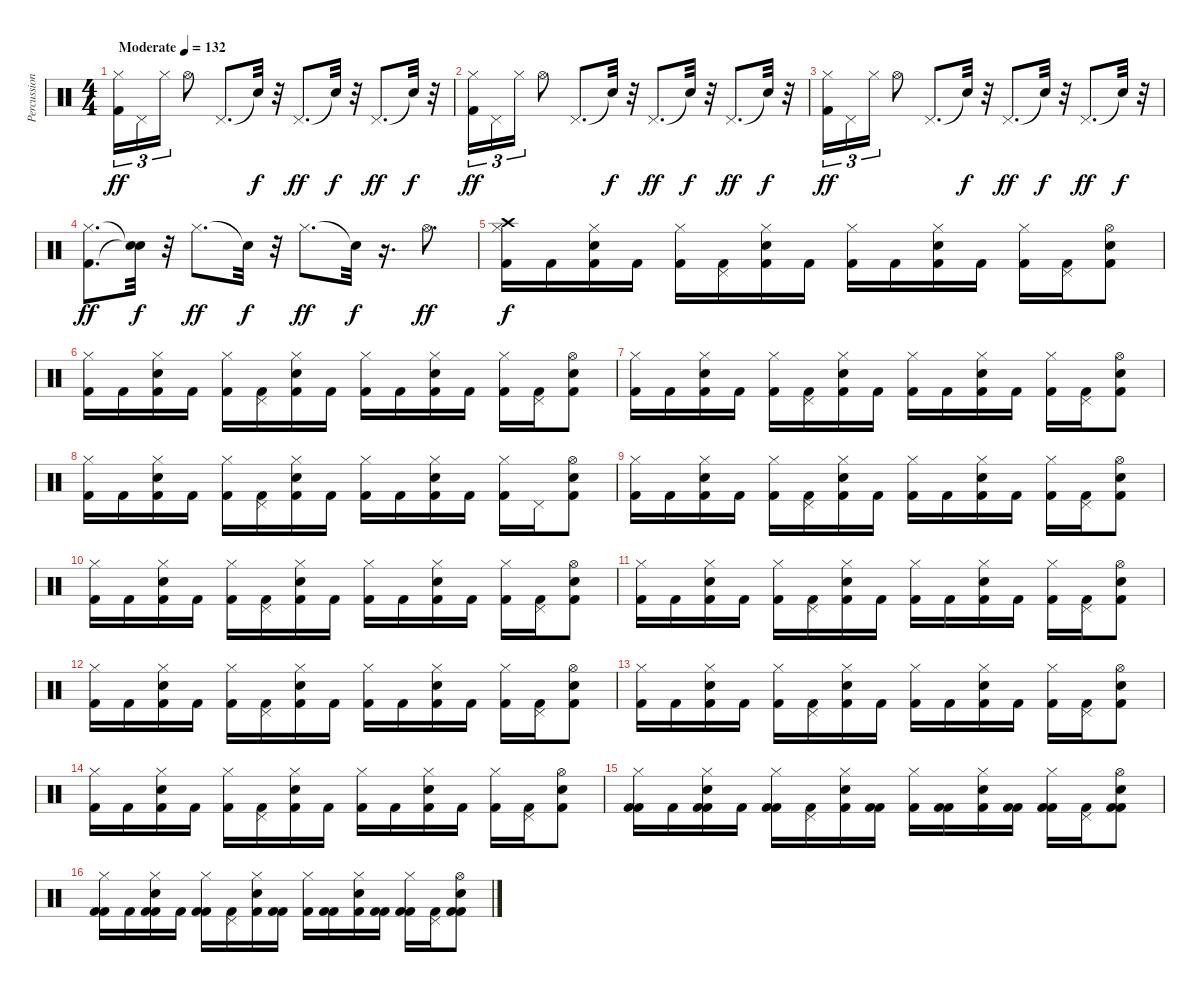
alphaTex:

\track ("Percussion" "Percussion") {instrument percussion}
\staff {score}
\articulation defaults
\ts (4 4)
\tempo (132 "Moderate")
\clef neutral
\ks c
("Kick (hit) 2" "Hi-Hat (closed)").16{tu (3 2) dy ff} "Pedal Hi-Hat (hit)".16{tu (3 2)} "Hi-Hat (closed)".16{tu (3 2)} "Hi-Hat (open)".8 "Pedal Hi-Hat (hit)".8{d} "Snare (hit)"{t}.32{dy f} r.32 "Pedal Hi-Hat (hit)".8{d dy ff} "Snare (hit)"{t}.32{dy f} r.32 "Pedal Hi-Hat (hit)".8{d dy ff} "Snare (hit)"{t}.32{dy f} r.32 |
("Kick (hit) 2" "Hi-Hat (closed)").16{tu (3 2) dy ff} "Pedal Hi-Hat (hit)".16{tu (3 2)} "Hi-Hat (closed)".16{tu (3 2)} "Hi-Hat (open)".8 "Pedal Hi-Hat (hit)".8{d} "Snare (hit)"{t}.32{dy f} r.32 "Pedal Hi-Hat (hit)".8{d dy ff} "Snare (hit)"{t}.32{dy f} r.32 "Pedal Hi-Hat (hit)".8{d dy ff} "Snare (hit)"{t}.32{dy f} r.32 |
("Kick (hit) 2" "Hi-Hat (closed)").16{tu (3 2) dy ff} "Pedal Hi-Hat (hit)".16{tu (3 2)} "Hi-Hat (closed)".16{tu (3 2)} "Hi-Hat (open)".8 "Pedal Hi-Hat (hit)".8{d} "Snare (hit)"{t}.32{dy f} r.32 "Pedal Hi-Hat (hit)".8{d dy ff} "Snare (hit)"{t}.32{dy f} r.32 "Pedal Hi-Hat (hit)".8{d dy ff} "Snare (hit)"{t}.32{dy f} r.32 |
("Kick (hit) 2" "Hi-Hat (closed)").8{d dy ff} ("Snare (hit)"{t} "Snare (hit)"{t}).32{dy f} r.32 "Hi-Hat (closed)".8{d dy ff} "Snare (hit)"{t}.32{dy f} r.32 "Hi-Hat (closed)".8{d dy ff} "Snare (hit)"{t}.32{dy f} r.16{d} "Hi-Hat (open)".8{d dy ff} |
("Kick (hit) 2" "Hi-Hat (closed)" "Crash high (hit)").16{dy f} "Kick (hit) 2".16 ("Kick (hit) 2" "Snare (hit) 2" "Hi-Hat (closed)").16 "Kick (hit) 2".16 ("Kick (hit) 2" "Hi-Hat (closed)").16 ("Pedal Hi-Hat (hit)" "Kick (hit) 2").16 ("Snare (hit) 2" "Hi-Hat (closed)" "Kick (hit) 2").16 "Kick (hit) 2".16 ("Hi-Hat (closed)" "Kick (hit) 2").16 "Kick (hit) 2".16 ("Snare (hit) 2" "Hi-Hat (closed)" "Kick (hit) 2").16 "Kick (hit) 2".16 ("Kick (hit) 2" "Hi-Hat (closed)").16 ("Pedal Hi-Hat (hit)" "Kick (hit) 2").16 ("Kick (hit) 2" "Snare (hit) 2" "Hi-Hat (open)").8 |
("Kick (hit) 2" "Hi-Hat (closed)").16 "Kick (hit) 2".16 ("Kick (hit) 2" "Snare (hit) 2" "Hi-Hat (closed)").16 "Kick (hit) 2".16 ("Kick (hit) 2" "Hi-Hat (closed)").16 ("Pedal Hi-Hat (hit)" "Kick (hit) 2").16 ("Snare (hit) 2" "Hi-Hat (closed)" "Kick (hit) 2").16 "Kick (hit) 2".16 ("Hi-Hat (closed)" "Kick (hit) 2").16 "Kick (hit) 2".16 ("Snare (hit) 2" "Hi-Hat (closed)" "Kick (hit) 2").16 "Kick (hit) 2".16 ("Kick (hit) 2" "Hi-Hat (closed)").16 ("Pedal Hi-Hat (hit)" "Kick (hit) 2").16 ("Kick (hit) 2" "Snare (hit) 2" "Hi-Hat (open)").8 |
("Kick (hit) 2" "Hi-Hat (closed)").16 "Kick (hit) 2".16 ("Kick (hit) 2" "Snare (hit) 2" "Hi-Hat (closed)").16 "Kick (hit) 2".16 ("Kick (hit) 2" "Hi-Hat (closed)").16 ("Pedal Hi-Hat (hit)" "Kick (hit) 2").16 ("Snare (hit) 2" "Hi-Hat (closed)" "Kick (hit) 2").16 "Kick (hit) 2".16 ("Hi-Hat (closed)" "Kick (hit) 2").16 "Kick (hit) 2".16 ("Snare (hit) 2" "Hi-Hat (closed)" "Kick (hit) 2").16 "Kick (hit) 2".16 ("Kick (hit) 2" "Hi-Hat (closed)").16 ("Pedal Hi-Hat (hit)" "Kick (hit) 2").16 ("Kick (hit) 2" "Snare (hit) 2" "Hi-Hat (open)").8 |
("Kick (hit) 2" "Hi-Hat (closed)").16 "Kick (hit) 2".16 ("Kick (hit) 2" "Snare (hit) 2" "Hi-Hat (closed)").16 "Kick (hit) 2".16 ("Kick (hit) 2" "Hi-Hat (closed)").16 ("Pedal Hi-Hat (hit)" "Kick (hit) 2").16 ("Snare (hit) 2" "Hi-Hat (closed)" "Kick (hit) 2").16 "Kick (hit) 2".16 ("Hi-Hat (closed)" "Kick (hit) 2").16 "Kick (hit) 2".16 ("Snare (hit) 2" "Hi-Hat (closed)" "Kick (hit) 2").16 "Kick (hit) 2".16 ("Kick (hit) 2" "Hi-Hat (closed)").16 "Pedal Hi-Hat (hit)".16 ("Kick (hit) 2" "Snare (hit) 2" "Hi-Hat (open)").8 |
("Kick (hit) 2" "Hi-Hat (closed)").16 "Kick (hit) 2".16 ("Kick (hit) 2" "Snare (hit) 2" "Hi-Hat (closed)").16 "Kick (hit) 2".16 ("Kick (hit) 2" "Hi-Hat (closed)").16 ("Pedal Hi-Hat (hit)" "Kick (hit) 2").16 ("Snare (hit) 2" "Hi-Hat (closed)" "Kick (hit) 2").16 "Kick (hit) 2".16 ("Hi-Hat (closed)" "Kick (hit) 2").16 "Kick (hit) 2".16 ("Snare (hit) 2" "Hi-Hat (closed)" "Kick (hit) 2").16 "Kick (hit) 2".16 ("Kick (hit) 2" "Hi-Hat (closed)").16 ("Pedal Hi-Hat (hit)" "Kick (hit) 2").16 ("Kick (hit) 2" "Snare (hit) 2" "Hi-Hat (open)").8 |
("Kick (hit) 2" "Hi-Hat (closed)").16 "Kick (hit) 2".16 ("Kick (hit) 2" "Snare (hit) 2" "Hi-Hat (closed)").16 "Kick (hit) 2".16 ("Kick (hit) 2" "Hi-Hat (closed)").16 ("Pedal Hi-Hat (hit)" "Kick (hit) 2").16 ("Snare (hit) 2" "Hi-Hat (closed)" "Kick (hit) 2").16 "Kick (hit) 2".16 ("Hi-Hat (closed)" "Kick (hit) 2").16 "Kick (hit) 2".16 ("Snare (hit) 2" "Hi-Hat (closed)" "Kick (hit) 2").16 "Kick (hit) 2".16 ("Kick (hit) 2" "Hi-Hat (closed)").16 ("Pedal Hi-Hat (hit)" "Kick (hit) 2").16 ("Kick (hit) 2" "Snare (hit) 2" "Hi-Hat (open)").8 |
("Kick (hit) 2" "Hi-Hat (closed)").16 "Kick (hit) 2".16 ("Kick (hit) 2" "Snare (hit) 2" "Hi-Hat (closed)").16 "Kick (hit) 2".16 ("Kick (hit) 2" "Hi-Hat (closed)").16 ("Pedal Hi-Hat (hit)" "Kick (hit) 2").16 ("Snare (hit) 2" "Hi-Hat (closed)" "Kick (hit) 2").16 "Kick (hit) 2".16 ("Hi-Hat (closed)" "Kick (hit) 2").16 "Kick (hit) 2".16 ("Snare (hit) 2" "Hi-Hat (closed)" "Kick (hit) 2").16 "Kick (hit) 2".16 ("Kick (hit) 2" "Hi-Hat (closed)").16 ("Pedal Hi-Hat (hit)" "Kick (hit) 2").16 ("Kick (hit) 2" "Snare (hit) 2" "Hi-Hat (open)").8 |
("Kick (hit) 2" "Hi-Hat (closed)").16 "Kick (hit) 2".16 ("Kick (hit) 2" "Snare (hit) 2" "Hi-Hat (closed)").16 "Kick (hit) 2".16 ("Kick (hit) 2" "Hi-Hat (closed)").16 ("Pedal Hi-Hat (hit)" "Kick (hit) 2").16 ("Snare (hit) 2" "Hi-Hat (closed)" "Kick (hit) 2").16 "Kick (hit) 2".16 ("Hi-Hat (closed)" "Kick (hit) 2").16 "Kick (hit) 2".16 ("Snare (hit) 2" "Hi-Hat (closed)" "Kick (hit) 2").16 "Kick (hit) 2".16 ("Kick (hit) 2" "Hi-Hat (closed)").16 ("Pedal Hi-Hat (hit)" "Kick (hit) 2").16 ("Kick (hit) 2" "Snare (hit) 2" "Hi-Hat (open)").8 |
("Kick (hit) 2" "Hi-Hat (closed)").16 "Kick (hit) 2".16 ("Kick (hit) 2" "Snare (hit) 2" "Hi-Hat (closed)").16 "Kick (hit) 2".16 ("Kick (hit) 2" "Hi-Hat (closed)").16 ("Pedal Hi-Hat (hit)" "Kick (hit) 2").16 ("Snare (hit) 2" "Hi-Hat (closed)" "Kick (hit) 2").16 "Kick (hit) 2".16 ("Hi-Hat (closed)" "Kick (hit) 2").16 "Kick (hit) 2".16 ("Snare (hit) 2" "Hi-Hat (closed)" "Kick (hit) 2").16 "Kick (hit) 2".16 ("Kick (hit) 2" "Hi-Hat (closed)").16 ("Pedal Hi-Hat (hit)" "Kick (hit) 2").16 ("Kick (hit) 2" "Snare (hit) 2" "Hi-Hat (open)").8 |
("Kick (hit) 2" "Hi-Hat (closed)").16 "Kick (hit) 2".16 ("Kick (hit) 2" "Snare (hit) 2" "Hi-Hat (closed)").16 "Kick (hit) 2".16 ("Kick (hit) 2" "Hi-Hat (closed)").16 ("Pedal Hi-Hat (hit)" "Kick (hit) 2").16 ("Snare (hit) 2" "Hi-Hat (closed)" "Kick (hit) 2").16 "Kick (hit) 2".16 ("Hi-Hat (closed)" "Kick (hit) 2").16 "Kick (hit) 2".16 ("Snare (hit) 2" "Hi-Hat (closed)" "Kick (hit) 2").16 "Kick (hit) 2".16 ("Kick (hit) 2" "Hi-Hat (closed)").16 ("Pedal Hi-Hat (hit)" "Kick (hit) 2").16 ("Kick (hit) 2" "Snare (hit) 2" "Hi-Hat (open)").8 |
("Kick (hit) 2" "Hi-Hat (closed)" "Kick (hit) 2").16 "Kick (hit) 2".16 ("Kick (hit) 2" "Snare (hit) 2" "Hi-Hat (closed)" "Kick (hit) 2").16 "Kick (hit) 2".16 ("Kick (hit) 2" "Hi-Hat (closed)" "Kick (hit) 2").16 ("Pedal Hi-Hat (hit)" "Kick (hit) 2").16 ("Snare (hit) 2" "Hi-Hat (closed)" "Kick (hit) 2").16 ("Kick (hit) 2" "Kick (hit) 2").16 ("Hi-Hat (closed)" "Kick (hit) 2").16 ("Kick (hit) 2" "Kick (hit) 2").16 ("Snare (hit) 2" "Hi-Hat (closed)" "Kick (hit) 2").16 ("Kick (hit) 2" "Kick (hit) 2").16 ("Kick (hit) 2" "Hi-Hat (closed)" "Kick (hit) 2").16 ("Pedal Hi-Hat (hit)" "Kick (hit) 2").16 ("Kick (hit) 2" "Snare (hit) 2" "Hi-Hat (open)" "Kick (hit) 2").8 |
("Kick (hit) 2" "Hi-Hat (closed)" "Kick (hit) 2").16 "Kick (hit) 2".16 ("Kick (hit) 2" "Snare (hit) 2" "Hi-Hat (closed)" "Kick (hit) 2").16 "Kick (hit) 2".16 ("Kick (hit) 2" "Hi-Hat (closed)" "Kick (hit) 2").16 ("Pedal Hi-Hat (hit)" "Kick (hit) 2").16 ("Snare (hit) 2" "Hi-Hat (closed)" "Kick (hit) 2").16 ("Kick (hit) 2" "Kick (hit) 2").16 ("Hi-Hat (closed)" "Kick (hit) 2").16 ("Kick (hit) 2" "Kick (hit) 2").16 ("Snare (hit) 2" "Hi-Hat (closed)" "Kick (hit) 2").16 ("Kick (hit) 2" "Kick (hit) 2").16 ("Kick (hit) 2" "Hi-Hat (closed)" "Kick (hit) 2").16 ("Pedal Hi-Hat (hit)" "Kick (hit) 2").16 ("Kick (hit) 2" "Snare (hit) 2" "Hi-Hat (open)" "Kick (hit) 2").8
